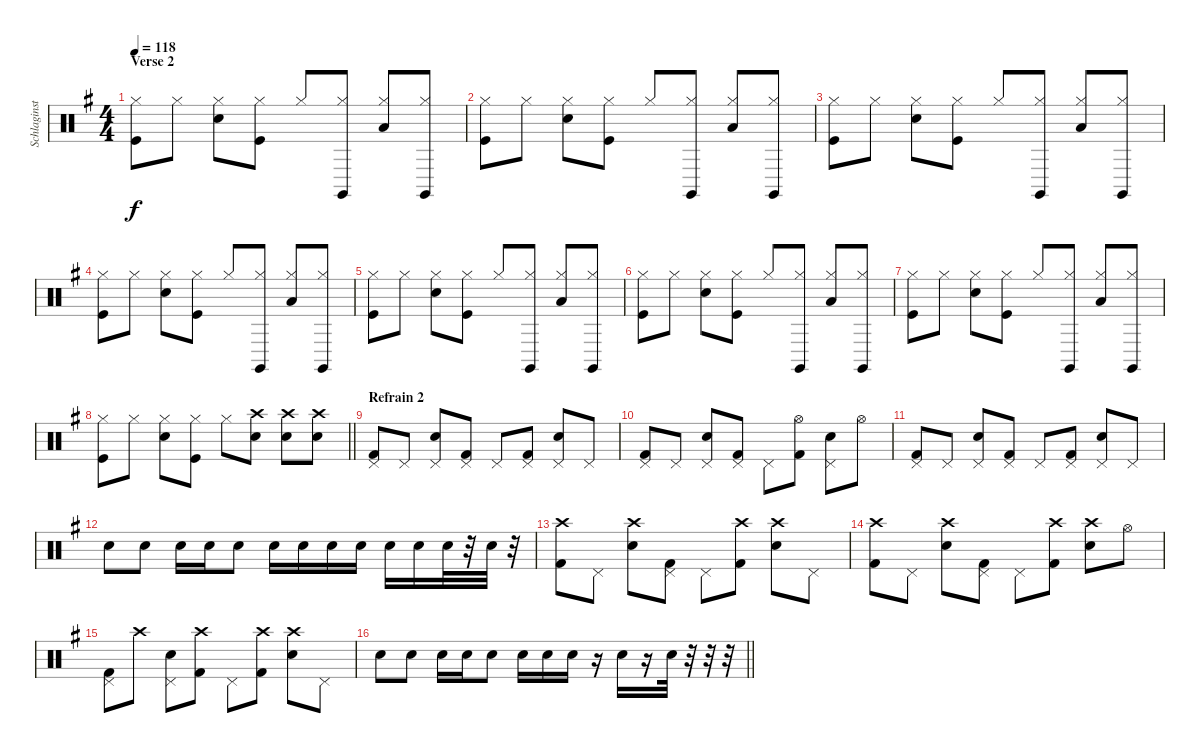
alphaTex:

\track ("Schlaginstrumente - Auswahl" "Schlaginst") {instrument percussion}
\staff {score}
\articulation defaults
\ts (4 4)
\section ("" "Verse 2")
\tempo 118
\clef neutral
\ks g
("Hi-Hat (closed)" "Kick (hit)").8{dy f} "Hi-Hat (closed)".8 ("Hi-Hat (closed)" "Electric Snare (hit)").8 ("Hi-Hat (closed)" "Kick (hit)").8 "Hi-Hat (closed)".8 ("Hi-Hat (closed)" "Claves (hit)").8 ("Hi-Hat (closed)" "Low Tom (hit)").8 ("Hi-Hat (closed)" "Claves (hit)").8 |
("Hi-Hat (closed)" "Kick (hit)").8 "Hi-Hat (closed)".8 ("Hi-Hat (closed)" "Electric Snare (hit)").8 ("Hi-Hat (closed)" "Kick (hit)").8 "Hi-Hat (closed)".8 ("Hi-Hat (closed)" "Claves (hit)").8 ("Hi-Hat (closed)" "Low Tom (hit)").8 ("Hi-Hat (closed)" "Claves (hit)").8 |
("Hi-Hat (closed)" "Kick (hit)").8 "Hi-Hat (closed)".8 ("Hi-Hat (closed)" "Electric Snare (hit)").8 ("Hi-Hat (closed)" "Kick (hit)").8 "Hi-Hat (closed)".8 ("Hi-Hat (closed)" "Claves (hit)").8 ("Hi-Hat (closed)" "Low Tom (hit)").8 ("Hi-Hat (closed)" "Claves (hit)").8 |
("Hi-Hat (closed)" "Kick (hit)").8 "Hi-Hat (closed)".8 ("Hi-Hat (closed)" "Electric Snare (hit)").8 ("Hi-Hat (closed)" "Kick (hit)").8 "Hi-Hat (closed)".8 ("Hi-Hat (closed)" "Claves (hit)").8 ("Hi-Hat (closed)" "Low Tom (hit)").8 ("Hi-Hat (closed)" "Claves (hit)").8 |
("Hi-Hat (closed)" "Kick (hit)").8 "Hi-Hat (closed)".8 ("Hi-Hat (closed)" "Electric Snare (hit)").8 ("Hi-Hat (closed)" "Kick (hit)").8 "Hi-Hat (closed)".8 ("Hi-Hat (closed)" "Claves (hit)").8 ("Hi-Hat (closed)" "Low Tom (hit)").8 ("Hi-Hat (closed)" "Claves (hit)").8 |
("Hi-Hat (closed)" "Kick (hit)").8 "Hi-Hat (closed)".8 ("Hi-Hat (closed)" "Electric Snare (hit)").8 ("Hi-Hat (closed)" "Kick (hit)").8 "Hi-Hat (closed)".8 ("Hi-Hat (closed)" "Claves (hit)").8 ("Hi-Hat (closed)" "Low Tom (hit)").8 ("Hi-Hat (closed)" "Claves (hit)").8 |
("Hi-Hat (closed)" "Kick (hit)").8 "Hi-Hat (closed)".8 ("Hi-Hat (closed)" "Electric Snare (hit)").8 ("Hi-Hat (closed)" "Kick (hit)").8 "Hi-Hat (closed)".8 ("Hi-Hat (closed)" "Claves (hit)").8 ("Hi-Hat (closed)" "Low Tom (hit)").8 ("Hi-Hat (closed)" "Claves (hit)").8 |
\barLineRight lightlight
("Hi-Hat (closed)" "Kick (hit)").8 "Hi-Hat (closed)".8 ("Hi-Hat (closed)" "Electric Snare (hit)").8 ("Hi-Hat (closed)" "Kick (hit)").8 "Hi-Hat (closed)".8 ("Crash high (hit)" "Snare (hit) 2").8 ("Crash high (hit)" "Snare (hit) 2").8 ("Crash high (hit)" "Snare (hit) 2").8 |
\section ("" "Refrain 2")
("Pedal Hi-Hat (hit)" "Kick (hit) 2").8 "Pedal Hi-Hat (hit)".8 ("Pedal Hi-Hat (hit)" "Snare (hit) 2").8 ("Pedal Hi-Hat (hit)" "Kick (hit) 2").8 "Pedal Hi-Hat (hit)".8 ("Pedal Hi-Hat (hit)" "Kick (hit) 2").8 ("Pedal Hi-Hat (hit)" "Snare (hit) 2").8 "Pedal Hi-Hat (hit)".8 |
("Pedal Hi-Hat (hit)" "Kick (hit) 2").8 "Pedal Hi-Hat (hit)".8 ("Pedal Hi-Hat (hit)" "Snare (hit) 2").8 ("Pedal Hi-Hat (hit)" "Kick (hit) 2").8 "Pedal Hi-Hat (hit)".8 ("Hi-Hat (open)" "Kick (hit) 2").8 ("Pedal Hi-Hat (hit)" "Snare (hit) 2").8 "Hi-Hat (open)".8 |
("Pedal Hi-Hat (hit)" "Kick (hit) 2").8 "Pedal Hi-Hat (hit)".8 ("Pedal Hi-Hat (hit)" "Snare (hit) 2").8 ("Pedal Hi-Hat (hit)" "Kick (hit) 2").8 "Pedal Hi-Hat (hit)".8 ("Pedal Hi-Hat (hit)" "Kick (hit) 2").8 ("Pedal Hi-Hat (hit)" "Snare (hit) 2").8 "Pedal Hi-Hat (hit)".8 |
"Snare (hit) 2".8 "Snare (hit) 2".8 "Snare (hit) 2".16 "Snare (hit) 2".16 "Snare (hit) 2".8 "Snare (hit) 2".16 "Snare (hit) 2".16 "Snare (hit) 2".16 "Snare (hit) 2".16 "Snare (hit) 2".16 "Snare (hit) 2".16 "Snare (hit) 2".32 r.32 "Snare (hit) 2".32 r.32 |
("Crash high (hit)" "Kick (hit) 2").8 "Pedal Hi-Hat (hit)".8 ("Crash high (hit)" "Snare (hit) 2").8 ("Pedal Hi-Hat (hit)" "Kick (hit) 2").8 "Pedal Hi-Hat (hit)".8 ("Crash high (hit)" "Kick (hit) 2").8 ("Crash high (hit)" "Snare (hit) 2").8 "Pedal Hi-Hat (hit)".8 |
("Crash high (hit)" "Kick (hit) 2").8 "Pedal Hi-Hat (hit)".8 ("Crash high (hit)" "Snare (hit) 2").8 ("Pedal Hi-Hat (hit)" "Kick (hit) 2").8 "Pedal Hi-Hat (hit)".8 ("Crash high (hit)" "Kick (hit) 2").8 ("Crash high (hit)" "Snare (hit) 2").8 "Hi-Hat (open)".8 |
("Pedal Hi-Hat (hit)" "Kick (hit) 2").8 "Crash high (hit)".8 ("Pedal Hi-Hat (hit)" "Snare (hit) 2").8 ("Crash high (hit)" "Kick (hit) 2").8 "Pedal Hi-Hat (hit)".8 ("Crash high (hit)" "Kick (hit) 2").8 ("Crash high (hit)" "Snare (hit) 2").8 "Pedal Hi-Hat (hit)".8 |
\barLineRight lightlight "Snare (hit) 2".8 "Snare (hit) 2".8 "Snare (hit) 2".16 "Snare (hit) 2".16 "Snare (hit) 2".8 "Snare (hit) 2".16 "Snare (hit) 2".16 "Snare (hit) 2".16
r.16 "Snare (hit) 2".16 r.16 "Snare (hit) 2".32 r.32 r.32 r.32
